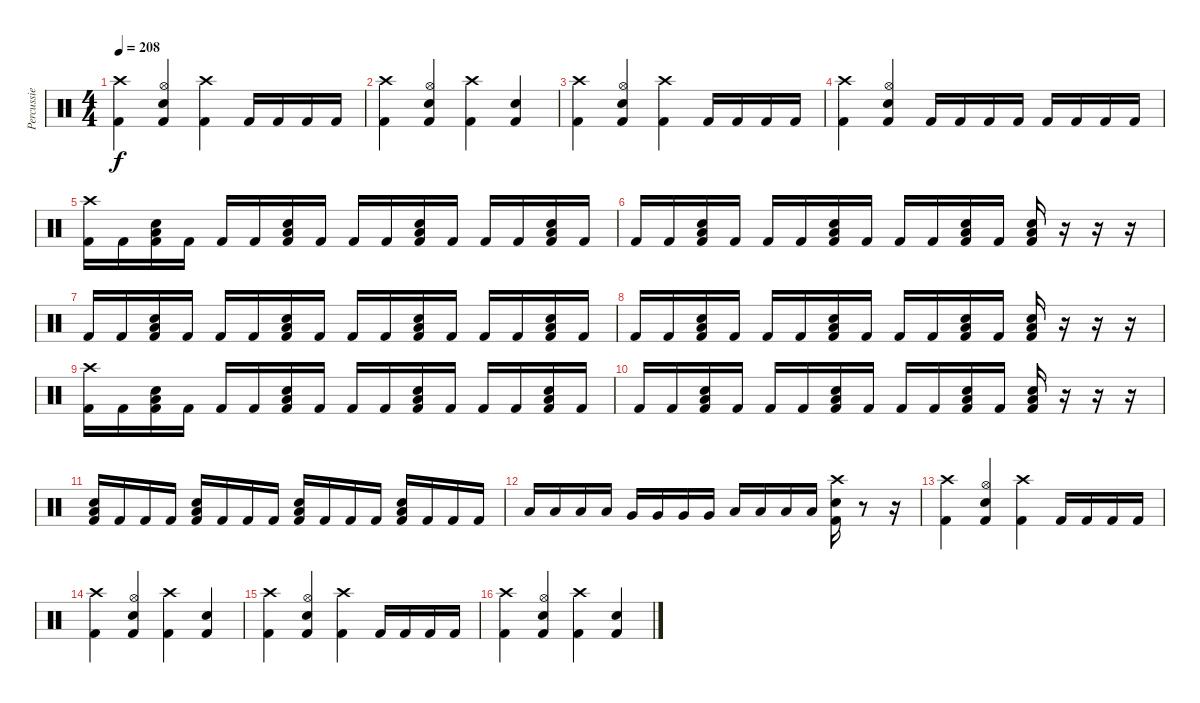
\track ("Percussie" "Percussie") {instrument percussion}
\staff {score}
\articulation defaults
\ts (4 4)
\tempo 208
\clef neutral
\ks c
("Crash high (hit)" "Kick (hit) 2").4{dy f} ("Hi-Hat (open)" "Electric Snare (hit)" "Kick (hit) 2").4 ("Crash high (hit)" "Kick (hit) 2").4 "Kick (hit) 2".16 "Kick (hit) 2".16 "Kick (hit) 2".16 "Kick (hit) 2".16 |
("Crash high (hit)" "Kick (hit) 2").4 ("Hi-Hat (open)" "Electric Snare (hit)" "Kick (hit) 2").4 ("Crash high (hit)" "Kick (hit) 2").4 ("Electric Snare (hit)" "Kick (hit) 2").4 |
("Crash high (hit)" "Kick (hit) 2").4 ("Hi-Hat (open)" "Electric Snare (hit)" "Kick (hit) 2").4 ("Crash high (hit)" "Kick (hit) 2").4 "Kick (hit) 2".16 "Kick (hit) 2".16 "Kick (hit) 2".16 "Kick (hit) 2".16 |
("Crash high (hit)" "Kick (hit) 2").4 ("Hi-Hat (open)" "Electric Snare (hit)" "Kick (hit) 2").4 "Kick (hit) 2".16 "Kick (hit) 2".16 "Kick (hit) 2".16 "Kick (hit) 2".16 "Kick (hit) 2".16 "Kick (hit) 2".16 "Kick (hit) 2".16 "Kick (hit) 2".16 |
("Crash high (hit)" "Kick (hit) 2").16 "Kick (hit) 2".16 ("Low Tom (hit)" "Electric Snare (hit)" "Kick (hit) 2").16 "Kick (hit) 2".16 "Kick (hit) 2".16 "Kick (hit) 2".16 ("Low Tom (hit)" "Electric Snare (hit)" "Kick (hit) 2").16 "Kick (hit) 2".16 "Kick (hit) 2".16 "Kick (hit) 2".16 ("Low Tom (hit)" "Electric Snare (hit)" "Kick (hit) 2").16 "Kick (hit) 2".16 "Kick (hit) 2".16 "Kick (hit) 2".16 ("Low Tom (hit)" "Electric Snare (hit)" "Kick (hit) 2").16 "Kick (hit) 2".16 |
"Kick (hit) 2".16 "Kick (hit) 2".16 ("Low Tom (hit)" "Electric Snare (hit)" "Kick (hit) 2").16 "Kick (hit) 2".16 "Kick (hit) 2".16 "Kick (hit) 2".16 ("Low Tom (hit)" "Electric Snare (hit)" "Kick (hit) 2").16 "Kick (hit) 2".16 "Kick (hit) 2".16 "Kick (hit) 2".16 ("Low Tom (hit)" "Electric Snare (hit)" "Kick (hit) 2").16 "Kick (hit) 2".16 ("Low Tom (hit)" "Electric Snare (hit)" "Kick (hit) 2").16 r.16 r.16 r.16 |
"Kick (hit) 2".16 "Kick (hit) 2".16 ("Low Tom (hit)" "Electric Snare (hit)" "Kick (hit) 2").16 "Kick (hit) 2".16 "Kick (hit) 2".16 "Kick (hit) 2".16 ("Low Tom (hit)" "Electric Snare (hit)" "Kick (hit) 2").16 "Kick (hit) 2".16 "Kick (hit) 2".16 "Kick (hit) 2".16 ("Low Tom (hit)" "Electric Snare (hit)" "Kick (hit) 2").16 "Kick (hit) 2".16 "Kick (hit) 2".16 "Kick (hit) 2".16 ("Low Tom (hit)" "Electric Snare (hit)" "Kick (hit) 2").16 "Kick (hit) 2".16 |
"Kick (hit) 2".16 "Kick (hit) 2".16 ("Low Tom (hit)" "Electric Snare (hit)" "Kick (hit) 2").16 "Kick (hit) 2".16 "Kick (hit) 2".16 "Kick (hit) 2".16 ("Low Tom (hit)" "Electric Snare (hit)" "Kick (hit) 2").16 "Kick (hit) 2".16 "Kick (hit) 2".16 "Kick (hit) 2".16 ("Low Tom (hit)" "Electric Snare (hit)" "Kick (hit) 2").16 "Kick (hit) 2".16 ("Low Tom (hit)" "Electric Snare (hit)" "Kick (hit) 2").16 r.16 r.16 r.16 |
("Crash high (hit)" "Kick (hit) 2").16 "Kick (hit) 2".16 ("Low Tom (hit)" "Electric Snare (hit)" "Kick (hit) 2").16 "Kick (hit) 2".16 "Kick (hit) 2".16 "Kick (hit) 2".16 ("Low Tom (hit)" "Electric Snare (hit)" "Kick (hit) 2").16 "Kick (hit) 2".16 "Kick (hit) 2".16 "Kick (hit) 2".16 ("Low Tom (hit)" "Electric Snare (hit)" "Kick (hit) 2").16 "Kick (hit) 2".16 "Kick (hit) 2".16 "Kick (hit) 2".16 ("Low Tom (hit)" "Electric Snare (hit)" "Kick (hit) 2").16 "Kick (hit) 2".16 |
"Kick (hit) 2".16 "Kick (hit) 2".16 ("Low Tom (hit)" "Electric Snare (hit)" "Kick (hit) 2").16 "Kick (hit) 2".16 "Kick (hit) 2".16 "Kick (hit) 2".16 ("Low Tom (hit)" "Electric Snare (hit)" "Kick (hit) 2").16 "Kick (hit) 2".16 "Kick (hit) 2".16 "Kick (hit) 2".16 ("Low Tom (hit)" "Electric Snare (hit)" "Kick (hit) 2").16 "Kick (hit) 2".16 ("Low Tom (hit)" "Electric Snare (hit)" "Kick (hit) 2").16 r.16 r.16 r.16 |
("Low Tom (hit)" "Electric Snare (hit)" "Kick (hit) 2").16 "Kick (hit) 2".16 "Kick (hit) 2".16 "Kick (hit) 2".16 ("Low Tom (hit)" "Electric Snare (hit)" "Kick (hit) 2").16 "Kick (hit) 2".16 "Kick (hit) 2".16 "Kick (hit) 2".16 ("Low Tom (hit)" "Electric Snare (hit)" "Kick (hit) 2").16 "Kick (hit) 2".16 "Kick (hit) 2".16 "Kick (hit) 2".16 ("Low Tom (hit)" "Electric Snare (hit)" "Kick (hit) 2").16 "Kick (hit) 2".16 "Kick (hit) 2".16 "Kick (hit) 2".16 |
"Low Tom (hit)".16 "Low Tom (hit)".16 "Low Tom (hit)".16 "Low Tom (hit)".16 "Very Low Tom (hit)".16 "Very Low Tom (hit)".16 "Very Low Tom (hit)".16 "Very Low Tom (hit)".16 "Low Floor Tom (hit)".16 "Low Floor Tom (hit)".16 "Low Floor Tom (hit)".16 "Low Floor Tom (hit)".16 ("Crash high (hit)" "Electric Snare (hit)" "Kick (hit) 2").16 r.8 r.16 |
("Crash high (hit)" "Kick (hit) 2").4 ("Hi-Hat (open)" "Electric Snare (hit)" "Kick (hit) 2").4 ("Crash high (hit)" "Kick (hit) 2").4 "Kick (hit) 2".16 "Kick (hit) 2".16 "Kick (hit) 2".16 "Kick (hit) 2".16 |
("Crash high (hit)" "Kick (hit) 2").4 ("Hi-Hat (open)" "Electric Snare (hit)" "Kick (hit) 2").4 ("Crash high (hit)" "Kick (hit) 2").4 ("Electric Snare (hit)" "Kick (hit) 2").4 |
("Crash high (hit)" "Kick (hit) 2").4 ("Hi-Hat (open)" "Electric Snare (hit)" "Kick (hit) 2").4 ("Crash high (hit)" "Kick (hit) 2").4 "Kick (hit) 2".16 "Kick (hit) 2".16 "Kick (hit) 2".16 "Kick (hit) 2".16 |
("Crash high (hit)" "Kick (hit) 2").4 ("Hi-Hat (open)" "Electric Snare (hit)" "Kick (hit) 2").4 ("Crash high (hit)" "Kick (hit) 2").4 ("Electric Snare (hit)" "Kick (hit) 2").4
